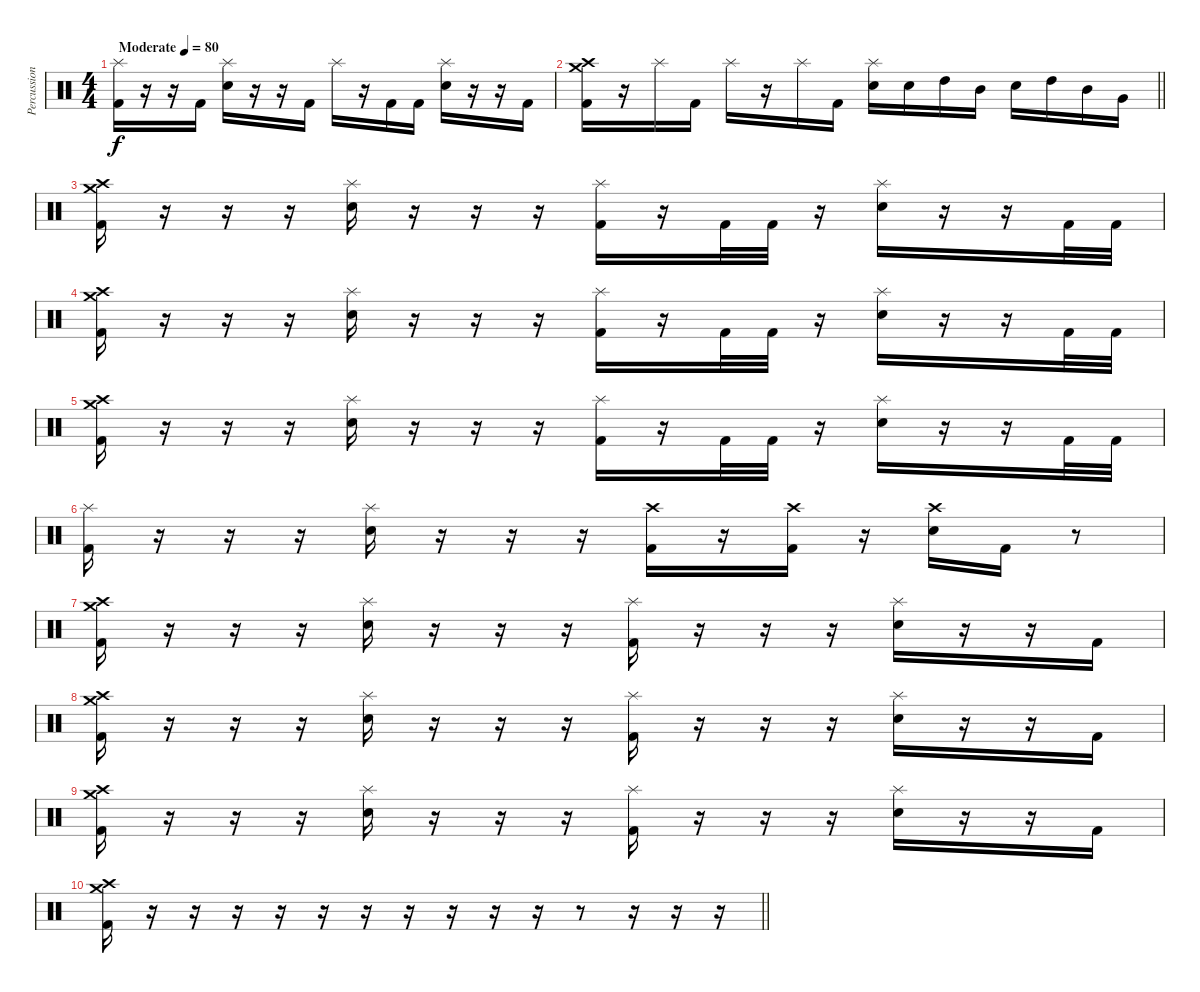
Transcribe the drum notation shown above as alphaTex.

\track ("Percussion" "Percussion") {instrument percussion}
\staff {score}
\articulation defaults
\ts (4 4)
\tempo (80 "Moderate")
\clef neutral
\ks aminor
("Splash (hit)" "Kick (hit) 2").16{dy f} r.16 r.16 "Kick (hit) 2".16 ("Splash (hit)" "Snare (hit) 2").16 r.16 r.16 "Kick (hit) 2".16 "Splash (hit)".16 r.16 "Kick (hit) 2".16 "Kick (hit) 2".16 ("Splash (hit)" "Snare (hit) 2").16 r.16 r.16 "Kick (hit) 2".16 |
\barLineRight lightlight
("Crash medium (hit)" "Crash high (hit)" "Kick (hit) 2").16 r.16 "Splash (hit)".16 "Kick (hit) 2".16 "Splash (hit)".16 r.16 "Splash (hit)".16 "Kick (hit) 2".16 ("Splash (hit)" "Snare (hit) 2").16 "Snare (hit) 2".16 "High Tom (hit)".16 "Mid Tom (hit)".16 "Snare (hit) 2".16 "High Tom (hit)".16 "Mid Tom (hit)".16 "Very Low Tom (hit)".16 |
("Crash medium (hit)" "Crash high (hit)" "Kick (hit) 2").16 r.16 r.16 r.16 ("Splash (hit)" "Snare (hit) 2").16 r.16 r.16 r.16 ("Splash (hit)" "Kick (hit) 2").16 r.16 "Kick (hit) 2".32 "Kick (hit) 2".32 r.16 ("Splash (hit)" "Snare (hit) 2").16 r.16 r.16 "Kick (hit) 2".32 "Kick (hit) 2".32 |
("Crash medium (hit)" "Crash high (hit)" "Kick (hit) 2").16 r.16 r.16 r.16 ("Splash (hit)" "Snare (hit) 2").16 r.16 r.16 r.16 ("Splash (hit)" "Kick (hit) 2").16 r.16 "Kick (hit) 2".32 "Kick (hit) 2".32 r.16 ("Splash (hit)" "Snare (hit) 2").16 r.16 r.16 "Kick (hit) 2".32 "Kick (hit) 2".32 |
("Crash medium (hit)" "Crash high (hit)" "Kick (hit) 2").16 r.16 r.16 r.16 ("Splash (hit)" "Snare (hit) 2").16 r.16 r.16 r.16 ("Splash (hit)" "Kick (hit) 2").16 r.16 "Kick (hit) 2".32 "Kick (hit) 2".32 r.16 ("Splash (hit)" "Snare (hit) 2").16 r.16 r.16 "Kick (hit) 2".32 "Kick (hit) 2".32 |
("Splash (hit)" "Kick (hit) 2").16 r.16 r.16 r.16 ("Splash (hit)" "Snare (hit) 2").16 r.16 r.16 r.16 ("Crash high (hit)" "Kick (hit) 2").16 r.16 ("Crash high (hit)" "Kick (hit) 2").16 r.16 ("Crash high (hit)" "Snare (hit) 2").16 "Kick (hit) 2".16 r.8 |
("Crash medium (hit)" "Crash high (hit)" "Kick (hit) 2").16 r.16 r.16 r.16 ("Splash (hit)" "Snare (hit) 2").16 r.16 r.16 r.16 ("Splash (hit)" "Kick (hit) 2").16 r.16 r.16 r.16 ("Splash (hit)" "Snare (hit) 2").16 r.16 r.16 "Kick (hit) 2".16 |
("Crash medium (hit)" "Crash high (hit)" "Kick (hit) 2").16 r.16 r.16 r.16 ("Splash (hit)" "Snare (hit) 2").16 r.16 r.16 r.16 ("Splash (hit)" "Kick (hit) 2").16 r.16 r.16 r.16 ("Splash (hit)" "Snare (hit) 2").16 r.16 r.16 "Kick (hit) 2".16 |
("Crash medium (hit)" "Crash high (hit)" "Kick (hit) 2").16 r.16 r.16 r.16 ("Splash (hit)" "Snare (hit) 2").16 r.16 r.16 r.16 ("Splash (hit)" "Kick (hit) 2").16 r.16 r.16 r.16 ("Splash (hit)" "Snare (hit) 2").16 r.16 r.16 "Kick (hit) 2".16 |
\barLineRight lightlight
("Crash medium (hit)" "Crash high (hit)" "Kick (hit) 2").16 r.16 r.16 r.16 r.16 r.16 r.16 r.16 r.16 r.16 r.16 r.8 r.16 r.16 r.16
